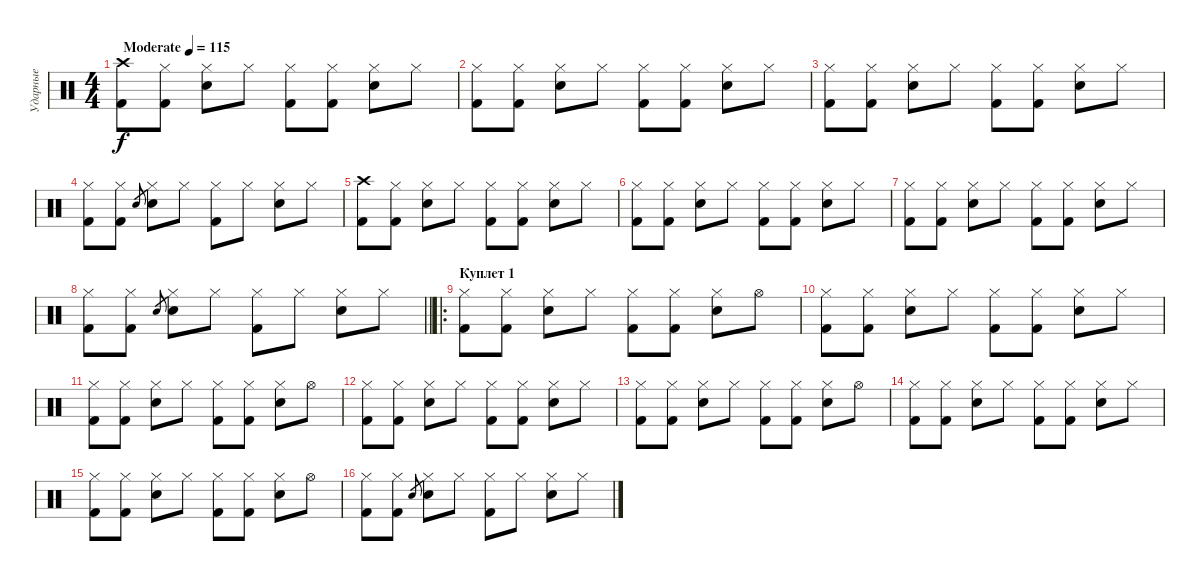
\track ("Ударные" "Ударные") {instrument percussion}
\staff {score}
\articulation defaults
\ts (4 4)
\tempo (115 "Moderate")
\clef neutral
\ks c
("Crash high (hit)" "Kick (hit) 2").8{dy f} ("Hi-Hat (closed)" "Kick (hit) 2").8 ("Hi-Hat (closed)" "Snare (hit) 2").8 "Hi-Hat (closed)".8 ("Hi-Hat (closed)" "Kick (hit) 2").8 ("Hi-Hat (closed)" "Kick (hit) 2").8 ("Hi-Hat (closed)" "Snare (hit) 2").8 "Hi-Hat (closed)".8 |
("Hi-Hat (closed)" "Kick (hit) 2").8 ("Hi-Hat (closed)" "Kick (hit) 2").8 ("Hi-Hat (closed)" "Snare (hit) 2").8 "Hi-Hat (closed)".8 ("Hi-Hat (closed)" "Kick (hit) 2").8 ("Hi-Hat (closed)" "Kick (hit) 2").8 ("Hi-Hat (closed)" "Snare (hit) 2").8 "Hi-Hat (closed)".8 |
("Hi-Hat (closed)" "Kick (hit) 2").8 ("Hi-Hat (closed)" "Kick (hit) 2").8 ("Hi-Hat (closed)" "Snare (hit) 2").8 "Hi-Hat (closed)".8 ("Hi-Hat (closed)" "Kick (hit) 2").8 ("Hi-Hat (closed)" "Kick (hit) 2").8 ("Hi-Hat (closed)" "Snare (hit) 2").8 "Hi-Hat (closed)".8 |
("Hi-Hat (closed)" "Kick (hit) 2").8 ("Hi-Hat (closed)" "Kick (hit) 2").8 "Snare (hit) 2".8{gr} ("Hi-Hat (closed)" "Snare (hit) 2").8 "Hi-Hat (closed)".8 ("Hi-Hat (closed)" "Kick (hit) 2").8 "Hi-Hat (closed)".8 ("Hi-Hat (closed)" "Snare (hit) 2").8 "Hi-Hat (closed)".8 |
("Crash high (hit)" "Kick (hit) 2").8 ("Hi-Hat (closed)" "Kick (hit) 2").8 ("Hi-Hat (closed)" "Snare (hit) 2").8 "Hi-Hat (closed)".8 ("Hi-Hat (closed)" "Kick (hit) 2").8 ("Hi-Hat (closed)" "Kick (hit) 2").8 ("Hi-Hat (closed)" "Snare (hit) 2").8 "Hi-Hat (closed)".8 |
("Hi-Hat (closed)" "Kick (hit) 2").8 ("Hi-Hat (closed)" "Kick (hit) 2").8 ("Hi-Hat (closed)" "Snare (hit) 2").8 "Hi-Hat (closed)".8 ("Hi-Hat (closed)" "Kick (hit) 2").8 ("Hi-Hat (closed)" "Kick (hit) 2").8 ("Hi-Hat (closed)" "Snare (hit) 2").8 "Hi-Hat (closed)".8 |
("Hi-Hat (closed)" "Kick (hit) 2").8 ("Hi-Hat (closed)" "Kick (hit) 2").8 ("Hi-Hat (closed)" "Snare (hit) 2").8 "Hi-Hat (closed)".8 ("Hi-Hat (closed)" "Kick (hit) 2").8 ("Hi-Hat (closed)" "Kick (hit) 2").8 ("Hi-Hat (closed)" "Snare (hit) 2").8 "Hi-Hat (closed)".8 |
\barLineRight lightlight
("Hi-Hat (closed)" "Kick (hit) 2").8 ("Hi-Hat (closed)" "Kick (hit) 2").8 "Snare (hit) 2".8{gr} ("Hi-Hat (closed)" "Snare (hit) 2").8 "Hi-Hat (closed)".8 ("Hi-Hat (closed)" "Kick (hit) 2").8 "Hi-Hat (closed)".8 ("Hi-Hat (closed)" "Snare (hit) 2").8 "Hi-Hat (closed)".8 |
\ro
\section ("" "Куплет 1")
("Hi-Hat (closed)" "Kick (hit) 2").8 ("Hi-Hat (closed)" "Kick (hit) 2").8 ("Hi-Hat (closed)" "Snare (hit) 2").8 "Hi-Hat (closed)".8 ("Hi-Hat (closed)" "Kick (hit) 2").8 ("Hi-Hat (closed)" "Kick (hit) 2").8 ("Hi-Hat (closed)" "Snare (hit) 2").8 "Hi-Hat (open)".8 |
("Hi-Hat (closed)" "Kick (hit) 2").8 ("Hi-Hat (closed)" "Kick (hit) 2").8 ("Hi-Hat (closed)" "Snare (hit) 2").8 "Hi-Hat (closed)".8 ("Hi-Hat (closed)" "Kick (hit) 2").8 ("Hi-Hat (closed)" "Kick (hit) 2").8 ("Hi-Hat (closed)" "Snare (hit) 2").8 "Hi-Hat (closed)".8 |
("Hi-Hat (closed)" "Kick (hit) 2").8 ("Hi-Hat (closed)" "Kick (hit) 2").8 ("Hi-Hat (closed)" "Snare (hit) 2").8 "Hi-Hat (closed)".8 ("Hi-Hat (closed)" "Kick (hit) 2").8 ("Hi-Hat (closed)" "Kick (hit) 2").8 ("Hi-Hat (closed)" "Snare (hit) 2").8 "Hi-Hat (open)".8 |
("Hi-Hat (closed)" "Kick (hit) 2").8 ("Hi-Hat (closed)" "Kick (hit) 2").8 ("Hi-Hat (closed)" "Snare (hit) 2").8 "Hi-Hat (closed)".8 ("Hi-Hat (closed)" "Kick (hit) 2").8 ("Hi-Hat (closed)" "Kick (hit) 2").8 ("Hi-Hat (closed)" "Snare (hit) 2").8 "Hi-Hat (closed)".8 |
("Hi-Hat (closed)" "Kick (hit) 2").8 ("Hi-Hat (closed)" "Kick (hit) 2").8 ("Hi-Hat (closed)" "Snare (hit) 2").8 "Hi-Hat (closed)".8 ("Hi-Hat (closed)" "Kick (hit) 2").8 ("Hi-Hat (closed)" "Kick (hit) 2").8 ("Hi-Hat (closed)" "Snare (hit) 2").8 "Hi-Hat (open)".8 |
("Hi-Hat (closed)" "Kick (hit) 2").8 ("Hi-Hat (closed)" "Kick (hit) 2").8 ("Hi-Hat (closed)" "Snare (hit) 2").8 "Hi-Hat (closed)".8 ("Hi-Hat (closed)" "Kick (hit) 2").8 ("Hi-Hat (closed)" "Kick (hit) 2").8 ("Hi-Hat (closed)" "Snare (hit) 2").8 "Hi-Hat (closed)".8 |
("Hi-Hat (closed)" "Kick (hit) 2").8 ("Hi-Hat (closed)" "Kick (hit) 2").8 ("Hi-Hat (closed)" "Snare (hit) 2").8 "Hi-Hat (closed)".8 ("Hi-Hat (closed)" "Kick (hit) 2").8 ("Hi-Hat (closed)" "Kick (hit) 2").8 ("Hi-Hat (closed)" "Snare (hit) 2").8 "Hi-Hat (open)".8 |
("Hi-Hat (closed)" "Kick (hit) 2").8 ("Hi-Hat (closed)" "Kick (hit) 2").8 "Snare (hit) 2".8{gr} ("Hi-Hat (closed)" "Snare (hit) 2").8 "Hi-Hat (closed)".8 ("Hi-Hat (closed)" "Kick (hit) 2").8 "Hi-Hat (closed)".8 ("Hi-Hat (closed)" "Snare (hit) 2").8 "Hi-Hat (closed)".8
